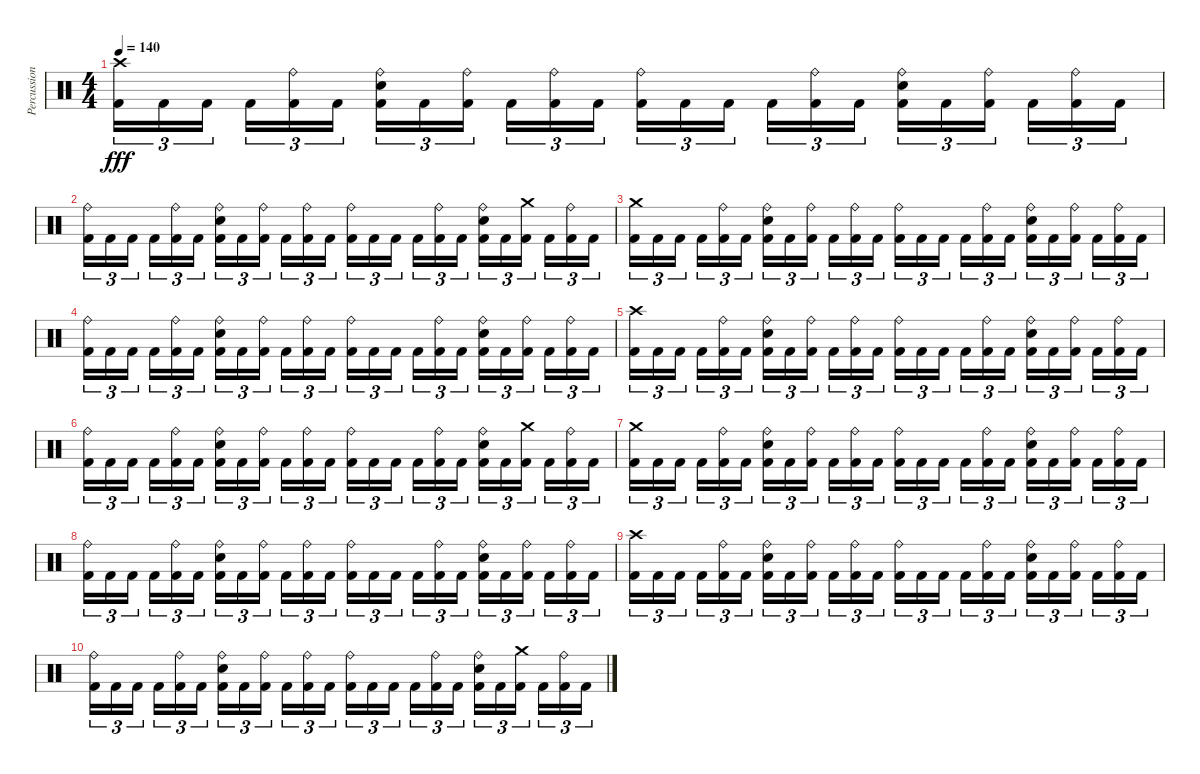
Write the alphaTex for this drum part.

\track ("Percussions" "Percussion") {instrument percussion}
\staff {score}
\articulation defaults
\ts (4 4)
\tempo 140
\clef neutral
\ks c
("Crash high (hit)" "Kick (hit) 2").16{tu (3 2) dy fff} "Kick (hit) 2".16{tu (3 2)} "Kick (hit) 2".16{tu (3 2) beam splitsecondary} "Kick (hit) 2".16{tu (3 2)} ("Ride (bell)" "Kick (hit) 2").16{tu (3 2)} "Kick (hit) 2".16{tu (3 2)} ("Ride (bell)" "Snare (hit) 2" "Kick (hit) 2").16{tu (3 2)} "Kick (hit) 2".16{tu (3 2)} ("Ride (bell)" "Kick (hit) 2").16{tu (3 2) beam splitsecondary} "Kick (hit) 2".16{tu (3 2)} ("Ride (bell)" "Kick (hit) 2").16{tu (3 2)} "Kick (hit) 2".16{tu (3 2)} ("Ride (bell)" "Kick (hit) 2").16{tu (3 2)} "Kick (hit) 2".16{tu (3 2)} "Kick (hit) 2".16{tu (3 2) beam splitsecondary} "Kick (hit) 2".16{tu (3 2)} ("Ride (bell)" "Kick (hit) 2").16{tu (3 2)} "Kick (hit) 2".16{tu (3 2)} ("Ride (bell)" "Snare (hit) 2" "Kick (hit) 2").16{tu (3 2)} "Kick (hit) 2".16{tu (3 2)} ("Ride (bell)" "Kick (hit) 2").16{tu (3 2) beam splitsecondary} "Kick (hit) 2".16{tu (3 2)} ("Ride (bell)" "Kick (hit) 2").16{tu (3 2)} "Kick (hit) 2".16{tu (3 2)} |
("Ride (bell)" "Kick (hit) 2").16{tu (3 2)} "Kick (hit) 2".16{tu (3 2)} "Kick (hit) 2".16{tu (3 2) beam splitsecondary} "Kick (hit) 2".16{tu (3 2)} ("Ride (bell)" "Kick (hit) 2").16{tu (3 2)} "Kick (hit) 2".16{tu (3 2)} ("Ride (bell)" "Snare (hit) 2" "Kick (hit) 2").16{tu (3 2)} "Kick (hit) 2".16{tu (3 2)} ("Ride (bell)" "Kick (hit) 2").16{tu (3 2) beam splitsecondary} "Kick (hit) 2".16{tu (3 2)} ("Ride (bell)" "Kick (hit) 2").16{tu (3 2)} "Kick (hit) 2".16{tu (3 2)} ("Ride (bell)" "Kick (hit) 2").16{tu (3 2)} "Kick (hit) 2".16{tu (3 2)} "Kick (hit) 2".16{tu (3 2) beam splitsecondary} "Kick (hit) 2".16{tu (3 2)} ("Ride (bell)" "Kick (hit) 2").16{tu (3 2)} "Kick (hit) 2".16{tu (3 2)} ("Ride (bell)" "Snare (hit) 2" "Kick (hit) 2").16{tu (3 2)} "Kick (hit) 2".16{tu (3 2)} ("Crash medium (hit)" "Kick (hit) 2").16{tu (3 2) beam splitsecondary} "Kick (hit) 2".16{tu (3 2)} ("Ride (bell)" "Kick (hit) 2").16{tu (3 2)} "Kick (hit) 2".16{tu (3 2)} |
("Crash medium (hit)" "Kick (hit) 2").16{tu (3 2)} "Kick (hit) 2".16{tu (3 2)} "Kick (hit) 2".16{tu (3 2) beam splitsecondary} "Kick (hit) 2".16{tu (3 2)} ("Ride (bell)" "Kick (hit) 2").16{tu (3 2)} "Kick (hit) 2".16{tu (3 2)} ("Ride (bell)" "Snare (hit) 2" "Kick (hit) 2").16{tu (3 2)} "Kick (hit) 2".16{tu (3 2)} ("Ride (bell)" "Kick (hit) 2").16{tu (3 2) beam splitsecondary} "Kick (hit) 2".16{tu (3 2)} ("Ride (bell)" "Kick (hit) 2").16{tu (3 2)} "Kick (hit) 2".16{tu (3 2)} ("Ride (bell)" "Kick (hit) 2").16{tu (3 2)} "Kick (hit) 2".16{tu (3 2)} "Kick (hit) 2".16{tu (3 2) beam splitsecondary} "Kick (hit) 2".16{tu (3 2)} ("Ride (bell)" "Kick (hit) 2").16{tu (3 2)} "Kick (hit) 2".16{tu (3 2)} ("Ride (bell)" "Snare (hit) 2" "Kick (hit) 2").16{tu (3 2)} "Kick (hit) 2".16{tu (3 2)} ("Ride (bell)" "Kick (hit) 2").16{tu (3 2) beam splitsecondary} "Kick (hit) 2".16{tu (3 2)} ("Ride (bell)" "Kick (hit) 2").16{tu (3 2)} "Kick (hit) 2".16{tu (3 2)} |
("Ride (bell)" "Kick (hit) 2").16{tu (3 2)} "Kick (hit) 2".16{tu (3 2)} "Kick (hit) 2".16{tu (3 2) beam splitsecondary} "Kick (hit) 2".16{tu (3 2)} ("Ride (bell)" "Kick (hit) 2").16{tu (3 2)} "Kick (hit) 2".16{tu (3 2)} ("Ride (bell)" "Snare (hit) 2" "Kick (hit) 2").16{tu (3 2)} "Kick (hit) 2".16{tu (3 2)} ("Ride (bell)" "Kick (hit) 2").16{tu (3 2) beam splitsecondary} "Kick (hit) 2".16{tu (3 2)} ("Ride (bell)" "Kick (hit) 2").16{tu (3 2)} "Kick (hit) 2".16{tu (3 2)} ("Ride (bell)" "Kick (hit) 2").16{tu (3 2)} "Kick (hit) 2".16{tu (3 2)} "Kick (hit) 2".16{tu (3 2) beam splitsecondary} "Kick (hit) 2".16{tu (3 2)} ("Ride (bell)" "Kick (hit) 2").16{tu (3 2)} "Kick (hit) 2".16{tu (3 2)} ("Ride (bell)" "Snare (hit) 2" "Kick (hit) 2").16{tu (3 2)} "Kick (hit) 2".16{tu (3 2)} ("Ride (bell)" "Kick (hit) 2").16{tu (3 2) beam splitsecondary} "Kick (hit) 2".16{tu (3 2)} ("Ride (bell)" "Kick (hit) 2").16{tu (3 2)} "Kick (hit) 2".16{tu (3 2)} |
("Crash high (hit)" "Kick (hit) 2").16{tu (3 2)} "Kick (hit) 2".16{tu (3 2)} "Kick (hit) 2".16{tu (3 2) beam splitsecondary} "Kick (hit) 2".16{tu (3 2)} ("Ride (bell)" "Kick (hit) 2").16{tu (3 2)} "Kick (hit) 2".16{tu (3 2)} ("Ride (bell)" "Snare (hit) 2" "Kick (hit) 2").16{tu (3 2)} "Kick (hit) 2".16{tu (3 2)} ("Ride (bell)" "Kick (hit) 2").16{tu (3 2) beam splitsecondary} "Kick (hit) 2".16{tu (3 2)} ("Ride (bell)" "Kick (hit) 2").16{tu (3 2)} "Kick (hit) 2".16{tu (3 2)} ("Ride (bell)" "Kick (hit) 2").16{tu (3 2)} "Kick (hit) 2".16{tu (3 2)} "Kick (hit) 2".16{tu (3 2) beam splitsecondary} "Kick (hit) 2".16{tu (3 2)} ("Ride (bell)" "Kick (hit) 2").16{tu (3 2)} "Kick (hit) 2".16{tu (3 2)} ("Ride (bell)" "Snare (hit) 2" "Kick (hit) 2").16{tu (3 2)} "Kick (hit) 2".16{tu (3 2)} ("Ride (bell)" "Kick (hit) 2").16{tu (3 2) beam splitsecondary} "Kick (hit) 2".16{tu (3 2)} ("Ride (bell)" "Kick (hit) 2").16{tu (3 2)} "Kick (hit) 2".16{tu (3 2)} |
("Ride (bell)" "Kick (hit) 2").16{tu (3 2)} "Kick (hit) 2".16{tu (3 2)} "Kick (hit) 2".16{tu (3 2) beam splitsecondary} "Kick (hit) 2".16{tu (3 2)} ("Ride (bell)" "Kick (hit) 2").16{tu (3 2)} "Kick (hit) 2".16{tu (3 2)} ("Ride (bell)" "Snare (hit) 2" "Kick (hit) 2").16{tu (3 2)} "Kick (hit) 2".16{tu (3 2)} ("Ride (bell)" "Kick (hit) 2").16{tu (3 2) beam splitsecondary} "Kick (hit) 2".16{tu (3 2)} ("Ride (bell)" "Kick (hit) 2").16{tu (3 2)} "Kick (hit) 2".16{tu (3 2)} ("Ride (bell)" "Kick (hit) 2").16{tu (3 2)} "Kick (hit) 2".16{tu (3 2)} "Kick (hit) 2".16{tu (3 2) beam splitsecondary} "Kick (hit) 2".16{tu (3 2)} ("Ride (bell)" "Kick (hit) 2").16{tu (3 2)} "Kick (hit) 2".16{tu (3 2)} ("Ride (bell)" "Snare (hit) 2" "Kick (hit) 2").16{tu (3 2)} "Kick (hit) 2".16{tu (3 2)} ("Crash medium (hit)" "Kick (hit) 2").16{tu (3 2) beam splitsecondary} "Kick (hit) 2".16{tu (3 2)} ("Ride (bell)" "Kick (hit) 2").16{tu (3 2)} "Kick (hit) 2".16{tu (3 2)} |
("Crash medium (hit)" "Kick (hit) 2").16{tu (3 2)} "Kick (hit) 2".16{tu (3 2)} "Kick (hit) 2".16{tu (3 2) beam splitsecondary} "Kick (hit) 2".16{tu (3 2)} ("Ride (bell)" "Kick (hit) 2").16{tu (3 2)} "Kick (hit) 2".16{tu (3 2)} ("Ride (bell)" "Snare (hit) 2" "Kick (hit) 2").16{tu (3 2)} "Kick (hit) 2".16{tu (3 2)} ("Ride (bell)" "Kick (hit) 2").16{tu (3 2) beam splitsecondary} "Kick (hit) 2".16{tu (3 2)} ("Ride (bell)" "Kick (hit) 2").16{tu (3 2)} "Kick (hit) 2".16{tu (3 2)} ("Ride (bell)" "Kick (hit) 2").16{tu (3 2)} "Kick (hit) 2".16{tu (3 2)} "Kick (hit) 2".16{tu (3 2) beam splitsecondary} "Kick (hit) 2".16{tu (3 2)} ("Ride (bell)" "Kick (hit) 2").16{tu (3 2)} "Kick (hit) 2".16{tu (3 2)} ("Ride (bell)" "Snare (hit) 2" "Kick (hit) 2").16{tu (3 2)} "Kick (hit) 2".16{tu (3 2)} ("Ride (bell)" "Kick (hit) 2").16{tu (3 2) beam splitsecondary} "Kick (hit) 2".16{tu (3 2)} ("Ride (bell)" "Kick (hit) 2").16{tu (3 2)} "Kick (hit) 2".16{tu (3 2)} |
("Ride (bell)" "Kick (hit) 2").16{tu (3 2)} "Kick (hit) 2".16{tu (3 2)} "Kick (hit) 2".16{tu (3 2) beam splitsecondary} "Kick (hit) 2".16{tu (3 2)} ("Ride (bell)" "Kick (hit) 2").16{tu (3 2)} "Kick (hit) 2".16{tu (3 2)} ("Ride (bell)" "Snare (hit) 2" "Kick (hit) 2").16{tu (3 2)} "Kick (hit) 2".16{tu (3 2)} ("Ride (bell)" "Kick (hit) 2").16{tu (3 2) beam splitsecondary} "Kick (hit) 2".16{tu (3 2)} ("Ride (bell)" "Kick (hit) 2").16{tu (3 2)} "Kick (hit) 2".16{tu (3 2)} ("Ride (bell)" "Kick (hit) 2").16{tu (3 2)} "Kick (hit) 2".16{tu (3 2)} "Kick (hit) 2".16{tu (3 2) beam splitsecondary} "Kick (hit) 2".16{tu (3 2)} ("Ride (bell)" "Kick (hit) 2").16{tu (3 2)} "Kick (hit) 2".16{tu (3 2)} ("Ride (bell)" "Snare (hit) 2" "Kick (hit) 2").16{tu (3 2)} "Kick (hit) 2".16{tu (3 2)} ("Ride (bell)" "Kick (hit) 2").16{tu (3 2) beam splitsecondary} "Kick (hit) 2".16{tu (3 2)} ("Ride (bell)" "Kick (hit) 2").16{tu (3 2)} "Kick (hit) 2".16{tu (3 2)} |
("Crash high (hit)" "Kick (hit) 2").16{tu (3 2)} "Kick (hit) 2".16{tu (3 2)} "Kick (hit) 2".16{tu (3 2) beam splitsecondary} "Kick (hit) 2".16{tu (3 2)} ("Ride (bell)" "Kick (hit) 2").16{tu (3 2)} "Kick (hit) 2".16{tu (3 2)} ("Ride (bell)" "Snare (hit) 2" "Kick (hit) 2").16{tu (3 2)} "Kick (hit) 2".16{tu (3 2)} ("Ride (bell)" "Kick (hit) 2").16{tu (3 2) beam splitsecondary} "Kick (hit) 2".16{tu (3 2)} ("Ride (bell)" "Kick (hit) 2").16{tu (3 2)} "Kick (hit) 2".16{tu (3 2)} ("Ride (bell)" "Kick (hit) 2").16{tu (3 2)} "Kick (hit) 2".16{tu (3 2)} "Kick (hit) 2".16{tu (3 2) beam splitsecondary} "Kick (hit) 2".16{tu (3 2)} ("Ride (bell)" "Kick (hit) 2").16{tu (3 2)} "Kick (hit) 2".16{tu (3 2)} ("Ride (bell)" "Snare (hit) 2" "Kick (hit) 2").16{tu (3 2)} "Kick (hit) 2".16{tu (3 2)} ("Ride (bell)" "Kick (hit) 2").16{tu (3 2) beam splitsecondary} "Kick (hit) 2".16{tu (3 2)} ("Ride (bell)" "Kick (hit) 2").16{tu (3 2)} "Kick (hit) 2".16{tu (3 2)} |
("Ride (bell)" "Kick (hit) 2").16{tu (3 2)} "Kick (hit) 2".16{tu (3 2)} "Kick (hit) 2".16{tu (3 2) beam splitsecondary} "Kick (hit) 2".16{tu (3 2)} ("Ride (bell)" "Kick (hit) 2").16{tu (3 2)} "Kick (hit) 2".16{tu (3 2)} ("Ride (bell)" "Snare (hit) 2" "Kick (hit) 2").16{tu (3 2)} "Kick (hit) 2".16{tu (3 2)} ("Ride (bell)" "Kick (hit) 2").16{tu (3 2) beam splitsecondary} "Kick (hit) 2".16{tu (3 2)} ("Ride (bell)" "Kick (hit) 2").16{tu (3 2)} "Kick (hit) 2".16{tu (3 2)} ("Ride (bell)" "Kick (hit) 2").16{tu (3 2)} "Kick (hit) 2".16{tu (3 2)} "Kick (hit) 2".16{tu (3 2) beam splitsecondary} "Kick (hit) 2".16{tu (3 2)} ("Ride (bell)" "Kick (hit) 2").16{tu (3 2)} "Kick (hit) 2".16{tu (3 2)} ("Ride (bell)" "Snare (hit) 2" "Kick (hit) 2").16{tu (3 2)} "Kick (hit) 2".16{tu (3 2)} ("Crash medium (hit)" "Kick (hit) 2").16{tu (3 2) beam splitsecondary} "Kick (hit) 2".16{tu (3 2)} ("Ride (bell)" "Kick (hit) 2").16{tu (3 2)} "Kick (hit) 2".16{tu (3 2)}
